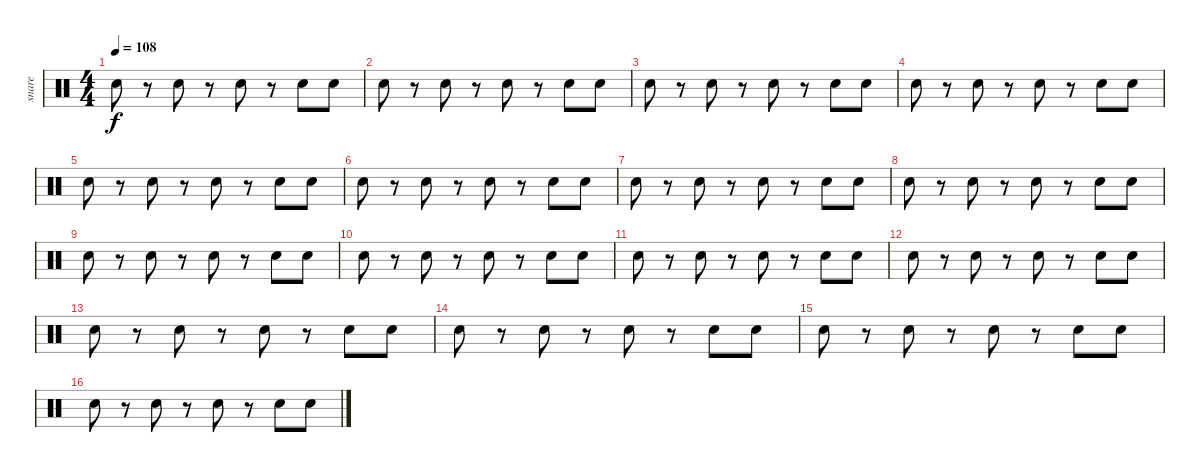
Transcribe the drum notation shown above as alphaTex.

\track ("snare               " "snare     ") {instrument percussion}
\staff {score}
\articulation defaults
\ts (4 4)
\tempo 108
\clef neutral
\ks c "Snare (hit) 2".8{dy f}
r.8 "Snare (hit) 2".8 r.8 "Snare (hit) 2".8 r.8 "Snare (hit) 2".8 "Snare (hit) 2".8 |
"Snare (hit) 2".8 r.8 "Snare (hit) 2".8 r.8 "Snare (hit) 2".8 r.8 "Snare (hit) 2".8 "Snare (hit) 2".8 |
"Snare (hit) 2".8 r.8 "Snare (hit) 2".8 r.8 "Snare (hit) 2".8 r.8 "Snare (hit) 2".8 "Snare (hit) 2".8 |
"Snare (hit) 2".8 r.8 "Snare (hit) 2".8 r.8 "Snare (hit) 2".8 r.8 "Snare (hit) 2".8 "Snare (hit) 2".8 |
"Snare (hit) 2".8 r.8 "Snare (hit) 2".8 r.8 "Snare (hit) 2".8 r.8 "Snare (hit) 2".8 "Snare (hit) 2".8 |
"Snare (hit) 2".8 r.8 "Snare (hit) 2".8 r.8 "Snare (hit) 2".8 r.8 "Snare (hit) 2".8 "Snare (hit) 2".8 |
"Snare (hit) 2".8 r.8 "Snare (hit) 2".8 r.8 "Snare (hit) 2".8 r.8 "Snare (hit) 2".8 "Snare (hit) 2".8 |
"Snare (hit) 2".8 r.8 "Snare (hit) 2".8 r.8 "Snare (hit) 2".8 r.8 "Snare (hit) 2".8 "Snare (hit) 2".8 |
"Snare (hit) 2".8 r.8 "Snare (hit) 2".8 r.8 "Snare (hit) 2".8 r.8 "Snare (hit) 2".8 "Snare (hit) 2".8 |
"Snare (hit) 2".8 r.8 "Snare (hit) 2".8 r.8 "Snare (hit) 2".8 r.8 "Snare (hit) 2".8 "Snare (hit) 2".8 |
"Snare (hit) 2".8 r.8 "Snare (hit) 2".8 r.8 "Snare (hit) 2".8 r.8 "Snare (hit) 2".8 "Snare (hit) 2".8 |
"Snare (hit) 2".8 r.8 "Snare (hit) 2".8 r.8 "Snare (hit) 2".8 r.8 "Snare (hit) 2".8 "Snare (hit) 2".8 |
"Snare (hit) 2".8 r.8 "Snare (hit) 2".8 r.8 "Snare (hit) 2".8 r.8 "Snare (hit) 2".8 "Snare (hit) 2".8 |
"Snare (hit) 2".8 r.8 "Snare (hit) 2".8 r.8 "Snare (hit) 2".8 r.8 "Snare (hit) 2".8 "Snare (hit) 2".8 |
"Snare (hit) 2".8 r.8 "Snare (hit) 2".8 r.8 "Snare (hit) 2".8 r.8 "Snare (hit) 2".8 "Snare (hit) 2".8 |
"Snare (hit) 2".8 r.8 "Snare (hit) 2".8 r.8 "Snare (hit) 2".8 r.8 "Snare (hit) 2".8 "Snare (hit) 2".8
